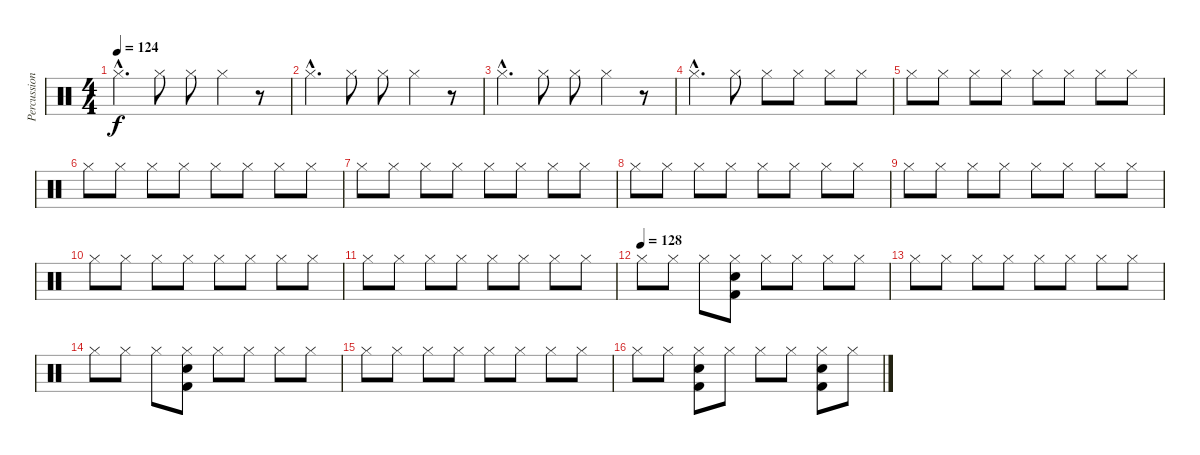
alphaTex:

\track ("Percussion" "Percussion") {instrument percussion}
\staff {score}
\articulation defaults
\ts (4 4)
\tempo 124
\clef neutral
\ks c "Hi-Hat (closed)"{hac}.4{d dy f} "Hi-Hat (closed)".8 "Hi-Hat (closed)".8 "Hi-Hat (closed)".4
r.8 |
"Hi-Hat (closed)"{hac}.4{d} "Hi-Hat (closed)".8 "Hi-Hat (closed)".8 "Hi-Hat (closed)".4 r.8 |
"Hi-Hat (closed)"{hac}.4{d} "Hi-Hat (closed)".8 "Hi-Hat (closed)".8 "Hi-Hat (closed)".4 r.8 |
"Hi-Hat (closed)"{hac}.4{d} "Hi-Hat (closed)".8 "Hi-Hat (closed)".8 "Hi-Hat (closed)".8 "Hi-Hat (closed)".8 "Hi-Hat (closed)".8 |
"Hi-Hat (closed)".8 "Hi-Hat (closed)".8 "Hi-Hat (closed)".8 "Hi-Hat (closed)".8 "Hi-Hat (closed)".8 "Hi-Hat (closed)".8 "Hi-Hat (closed)".8 "Hi-Hat (closed)".8 |
"Hi-Hat (closed)".8 "Hi-Hat (closed)".8 "Hi-Hat (closed)".8 "Hi-Hat (closed)".8 "Hi-Hat (closed)".8 "Hi-Hat (closed)".8 "Hi-Hat (closed)".8 "Hi-Hat (closed)".8 |
"Hi-Hat (closed)".8 "Hi-Hat (closed)".8 "Hi-Hat (closed)".8 "Hi-Hat (closed)".8 "Hi-Hat (closed)".8 "Hi-Hat (closed)".8 "Hi-Hat (closed)".8 "Hi-Hat (closed)".8 |
"Hi-Hat (closed)".8 "Hi-Hat (closed)".8 "Hi-Hat (closed)".8 "Hi-Hat (closed)".8 "Hi-Hat (closed)".8 "Hi-Hat (closed)".8 "Hi-Hat (closed)".8 "Hi-Hat (closed)".8 |
"Hi-Hat (closed)".8 "Hi-Hat (closed)".8 "Hi-Hat (closed)".8 "Hi-Hat (closed)".8 "Hi-Hat (closed)".8 "Hi-Hat (closed)".8 "Hi-Hat (closed)".8 "Hi-Hat (closed)".8 |
"Hi-Hat (closed)".8 "Hi-Hat (closed)".8 "Hi-Hat (closed)".8 "Hi-Hat (closed)".8 "Hi-Hat (closed)".8 "Hi-Hat (closed)".8 "Hi-Hat (closed)".8 "Hi-Hat (closed)".8 |
"Hi-Hat (closed)".8 "Hi-Hat (closed)".8 "Hi-Hat (closed)".8 "Hi-Hat (closed)".8 "Hi-Hat (closed)".8 "Hi-Hat (closed)".8 "Hi-Hat (closed)".8 "Hi-Hat (closed)".8 |
\tempo (128)
"Hi-Hat (closed)".8 "Hi-Hat (closed)".8 "Hi-Hat (closed)".8 ("Hi-Hat (closed)" "Electric Snare (hit)" "Kick (hit) 2").8 "Hi-Hat (closed)".8 "Hi-Hat (closed)".8 "Hi-Hat (closed)".8 "Hi-Hat (closed)".8 |
"Hi-Hat (closed)".8 "Hi-Hat (closed)".8 "Hi-Hat (closed)".8 "Hi-Hat (closed)".8 "Hi-Hat (closed)".8 "Hi-Hat (closed)".8 "Hi-Hat (closed)".8 "Hi-Hat (closed)".8 |
"Hi-Hat (closed)".8 "Hi-Hat (closed)".8 "Hi-Hat (closed)".8 ("Hi-Hat (closed)" "Electric Snare (hit)" "Kick (hit) 2").8 "Hi-Hat (closed)".8 "Hi-Hat (closed)".8 "Hi-Hat (closed)".8 "Hi-Hat (closed)".8 |
"Hi-Hat (closed)".8 "Hi-Hat (closed)".8 "Hi-Hat (closed)".8 "Hi-Hat (closed)".8 "Hi-Hat (closed)".8 "Hi-Hat (closed)".8 "Hi-Hat (closed)".8 "Hi-Hat (closed)".8 |
"Hi-Hat (closed)".8 "Hi-Hat (closed)".8 ("Hi-Hat (closed)" "Electric Snare (hit)" "Kick (hit) 2").8 "Hi-Hat (closed)".8 "Hi-Hat (closed)".8 "Hi-Hat (closed)".8 ("Hi-Hat (closed)" "Electric Snare (hit)" "Kick (hit) 2").8 "Hi-Hat (closed)".8
